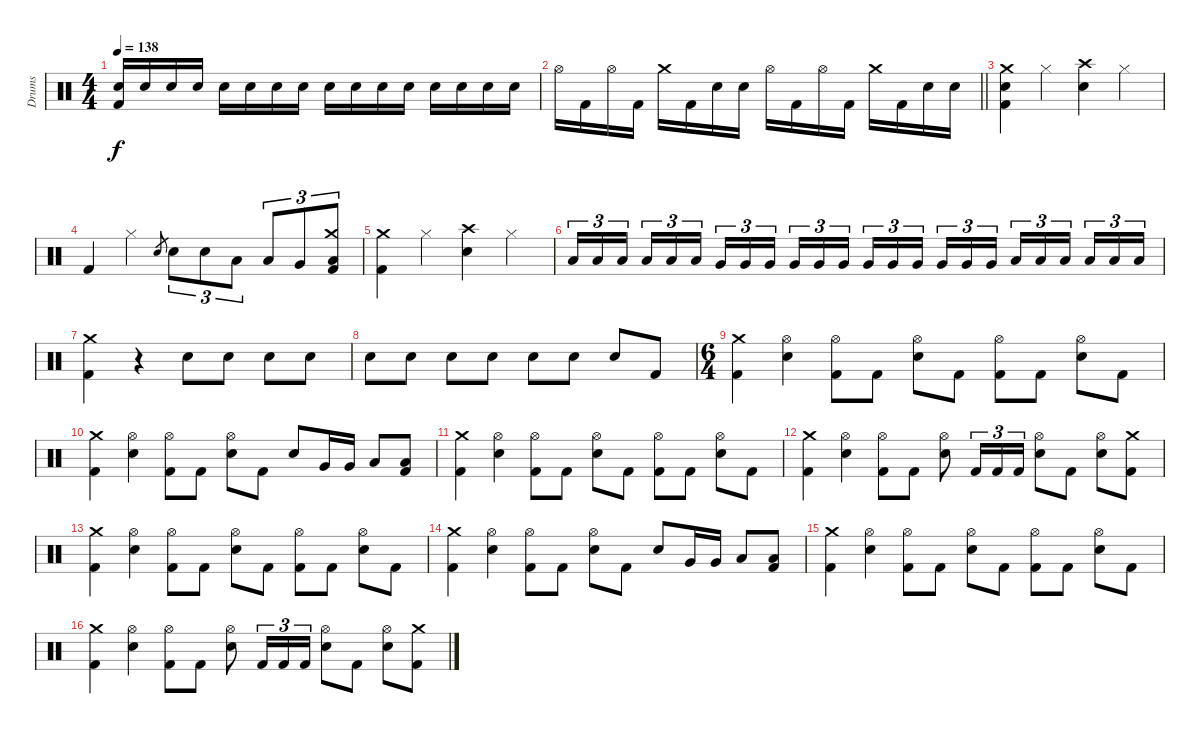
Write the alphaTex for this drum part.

\track ("Drums" "Drums") {instrument percussion}
\staff {score}
\articulation defaults
\ts (4 4)
\tempo 138
\clef neutral
\ks c
("Electric Snare (hit)" "Kick (hit) 2").16{dy f} "Electric Snare (hit)".16 "Electric Snare (hit)".16 "Electric Snare (hit)".16 "Electric Snare (hit)".16 "Electric Snare (hit)".16 "Electric Snare (hit)".16 "Electric Snare (hit)".16 "Electric Snare (hit)".16 "Electric Snare (hit)".16 "Electric Snare (hit)".16 "Electric Snare (hit)".16 "Electric Snare (hit)".16 "Electric Snare (hit)".16 "Electric Snare (hit)".16 "Electric Snare (hit)".16 |
\barLineRight lightlight "Hi-Hat (open)".16 "Kick (hit) 2".16 "Hi-Hat (open)".16 "Kick (hit) 2".16 "Crash medium (hit)".16 "Kick (hit) 2".16 "Electric Snare (hit)".16 "Electric Snare (hit)".16 "Hi-Hat (open)".16 "Kick (hit) 2".16 "Hi-Hat (open)".16 "Kick (hit) 2".16 "Crash medium (hit)".16 "Kick (hit) 2".16 "Electric Snare (hit)".16 "Electric Snare (hit)".16
|
("Crash medium (hit)" "Electric Snare (hit)" "Kick (hit) 2").4 "Hi-Hat (closed)".4 ("Crash high (hit)" "Electric Snare (hit)").4 "Hi-Hat (closed)".4 |
"Kick (hit) 2".4 "Hi-Hat (closed)".4 "Electric Snare (hit)".8{gr} "Electric Snare (hit)".8{tu (3 2)} "Electric Snare (hit)".8{tu (3 2)} "Low Tom (hit)".8{tu (3 2)} "Low Tom (hit)".8{tu (3 2)} "Very Low Tom (hit)".8{tu (3 2)} ("Crash medium (hit)" "Low Floor Tom (hit)" "Kick (hit) 2").8{tu (3 2)} |
("Crash medium (hit)" "Kick (hit) 2").4 "Hi-Hat (closed)".4 ("Crash high (hit)" "Electric Snare (hit)").4 "Hi-Hat (closed)".4 |
"Low Tom (hit)".16{tu (3 2)} "Low Tom (hit)".16{tu (3 2)} "Low Tom (hit)".16{tu (3 2) beam splitsecondary} "Low Tom (hit)".16{tu (3 2)} "Low Tom (hit)".16{tu (3 2)} "Low Tom (hit)".16{tu (3 2)} "Very Low Tom (hit)".16{tu (3 2)} "Very Low Tom (hit)".16{tu (3 2)} "Very Low Tom (hit)".16{tu (3 2) beam splitsecondary} "Very Low Tom (hit)".16{tu (3 2)} "Very Low Tom (hit)".16{tu (3 2)} "Very Low Tom (hit)".16{tu (3 2)} "Very Low Tom (hit)".16{tu (3 2)} "Very Low Tom (hit)".16{tu (3 2)} "Very Low Tom (hit)".16{tu (3 2) beam splitsecondary} "Very Low Tom (hit)".16{tu (3 2)} "Very Low Tom (hit)".16{tu (3 2)} "Very Low Tom (hit)".16{tu (3 2)} "Low Floor Tom (hit)".16{tu (3 2)} "Low Floor Tom (hit)".16{tu (3 2)} "Low Floor Tom (hit)".16{tu (3 2) beam splitsecondary} "Low Floor Tom (hit)".16{tu (3 2)} "Low Floor Tom (hit)".16{tu (3 2)} "Low Floor Tom (hit)".16{tu (3 2)} |
("Crash medium (hit)" "Kick (hit) 2").4 r.4 "Electric Snare (hit)".8 "Electric Snare (hit)".8 "Electric Snare (hit)".8 "Electric Snare (hit)".8 |
"Electric Snare (hit)".8 "Electric Snare (hit)".8 "Electric Snare (hit)".8 "Electric Snare (hit)".8 "Electric Snare (hit)".8 "Electric Snare (hit)".8 "Electric Snare (hit)".8 "Kick (hit) 2".8 |
\ts (6 4)
("Crash medium (hit)" "Kick (hit) 2").4 ("Hi-Hat (open)" "Electric Snare (hit)").4 ("Hi-Hat (open)" "Kick (hit) 2").8 "Kick (hit) 2".8 ("Hi-Hat (open)" "Electric Snare (hit)").8 "Kick (hit) 2".8 ("Hi-Hat (open)" "Kick (hit) 2").8 "Kick (hit) 2".8 ("Hi-Hat (open)" "Electric Snare (hit)").8 "Kick (hit) 2".8 |
("Crash medium (hit)" "Kick (hit) 2").4 ("Hi-Hat (open)" "Electric Snare (hit)").4 ("Hi-Hat (open)" "Kick (hit) 2").8 "Kick (hit) 2".8 ("Hi-Hat (open)" "Electric Snare (hit)").8 "Kick (hit) 2".8 "Electric Snare (hit)".8 "Very Low Tom (hit)".16 "Very Low Tom (hit)".16 "Low Floor Tom (hit)".8 ("Low Floor Tom (hit)" "Kick (hit) 2").8 |
("Crash medium (hit)" "Kick (hit) 2").4 ("Hi-Hat (open)" "Electric Snare (hit)").4 ("Hi-Hat (open)" "Kick (hit) 2").8 "Kick (hit) 2".8 ("Hi-Hat (open)" "Electric Snare (hit)").8 "Kick (hit) 2".8 ("Hi-Hat (open)" "Kick (hit) 2").8 "Kick (hit) 2".8 ("Hi-Hat (open)" "Electric Snare (hit)").8 "Kick (hit) 2".8 |
("Crash medium (hit)" "Kick (hit) 2").4 ("Hi-Hat (open)" "Electric Snare (hit)").4 ("Hi-Hat (open)" "Kick (hit) 2").8 "Kick (hit) 2".8 ("Hi-Hat (open)" "Electric Snare (hit)").8 "Kick (hit) 2".16{tu (3 2)} "Kick (hit) 2".16{tu (3 2)} "Kick (hit) 2".16{tu (3 2)} ("Hi-Hat (open)" "Electric Snare (hit)").8 "Kick (hit) 2".8 ("Hi-Hat (open)" "Electric Snare (hit)").8 ("Crash medium (hit)" "Kick (hit) 2").8 |
("Crash medium (hit)" "Kick (hit) 2").4 ("Hi-Hat (open)" "Electric Snare (hit)").4 ("Hi-Hat (open)" "Kick (hit) 2").8 "Kick (hit) 2".8 ("Hi-Hat (open)" "Electric Snare (hit)").8 "Kick (hit) 2".8 ("Hi-Hat (open)" "Kick (hit) 2").8 "Kick (hit) 2".8 ("Hi-Hat (open)" "Electric Snare (hit)").8 "Kick (hit) 2".8 |
("Crash medium (hit)" "Kick (hit) 2").4 ("Hi-Hat (open)" "Electric Snare (hit)").4 ("Hi-Hat (open)" "Kick (hit) 2").8 "Kick (hit) 2".8 ("Hi-Hat (open)" "Electric Snare (hit)").8 "Kick (hit) 2".8 "Electric Snare (hit)".8 "Very Low Tom (hit)".16 "Very Low Tom (hit)".16 "Low Floor Tom (hit)".8 ("Low Floor Tom (hit)" "Kick (hit) 2").8 |
("Crash medium (hit)" "Kick (hit) 2").4 ("Hi-Hat (open)" "Electric Snare (hit)").4 ("Hi-Hat (open)" "Kick (hit) 2").8 "Kick (hit) 2".8 ("Hi-Hat (open)" "Electric Snare (hit)").8 "Kick (hit) 2".8 ("Hi-Hat (open)" "Kick (hit) 2").8 "Kick (hit) 2".8 ("Hi-Hat (open)" "Electric Snare (hit)").8 "Kick (hit) 2".8 |
("Crash medium (hit)" "Kick (hit) 2").4 ("Hi-Hat (open)" "Electric Snare (hit)").4 ("Hi-Hat (open)" "Kick (hit) 2").8 "Kick (hit) 2".8 ("Hi-Hat (open)" "Electric Snare (hit)").8 "Kick (hit) 2".16{tu (3 2)} "Kick (hit) 2".16{tu (3 2)} "Kick (hit) 2".16{tu (3 2)} ("Hi-Hat (open)" "Electric Snare (hit)").8 "Kick (hit) 2".8 ("Hi-Hat (open)" "Electric Snare (hit)").8 ("Crash medium (hit)" "Kick (hit) 2").8
